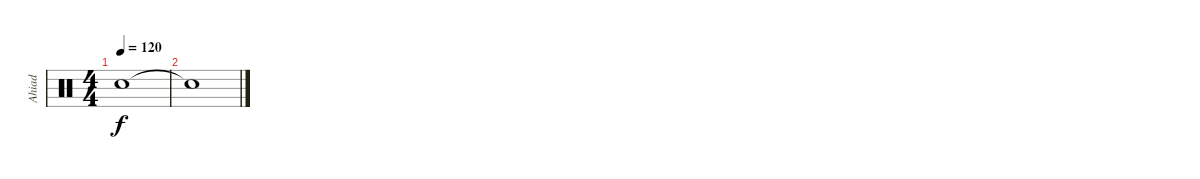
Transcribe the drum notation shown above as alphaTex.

\track ("Ahiad" "Ahiad") {instrument percussion}
\staff {score}
\articulation defaults
\ts (4 4)
\tempo 120
\clef neutral
\ks c "Snare (hit)"{t}.1{dy f}
|
"Snare (hit)"{t}.1
